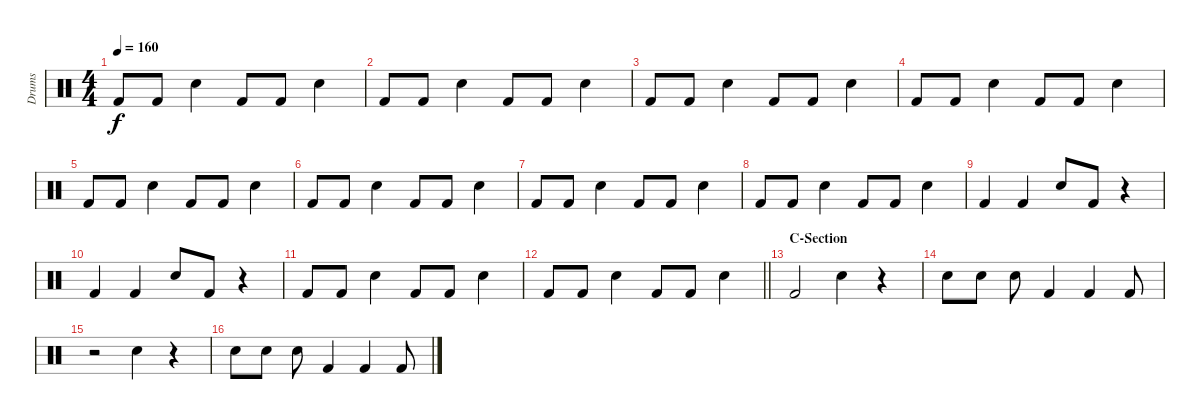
\track ("Drums" "Drums") {instrument percussion}
\staff {score}
\articulation defaults
\ts (4 4)
\tempo 160
\clef neutral
\ks c "Kick (hit) 2".8{dy f} "Kick (hit) 2".8 "Electric Snare (hit)".4 "Kick (hit) 2".8 "Kick (hit) 2".8 "Electric Snare (hit)".4
|
"Kick (hit) 2".8 "Kick (hit) 2".8 "Electric Snare (hit)".4 "Kick (hit) 2".8 "Kick (hit) 2".8 "Electric Snare (hit)".4 |
"Kick (hit) 2".8 "Kick (hit) 2".8 "Electric Snare (hit)".4 "Kick (hit) 2".8 "Kick (hit) 2".8 "Electric Snare (hit)".4 |
"Kick (hit) 2".8 "Kick (hit) 2".8 "Electric Snare (hit)".4 "Kick (hit) 2".8 "Kick (hit) 2".8 "Electric Snare (hit)".4 |
"Kick (hit) 2".8 "Kick (hit) 2".8 "Electric Snare (hit)".4 "Kick (hit) 2".8 "Kick (hit) 2".8 "Electric Snare (hit)".4 |
"Kick (hit) 2".8 "Kick (hit) 2".8 "Electric Snare (hit)".4 "Kick (hit) 2".8 "Kick (hit) 2".8 "Electric Snare (hit)".4 |
"Kick (hit) 2".8 "Kick (hit) 2".8 "Electric Snare (hit)".4 "Kick (hit) 2".8 "Kick (hit) 2".8 "Electric Snare (hit)".4 |
"Kick (hit) 2".8 "Kick (hit) 2".8 "Electric Snare (hit)".4 "Kick (hit) 2".8 "Kick (hit) 2".8 "Electric Snare (hit)".4 |
"Kick (hit) 2".4 "Kick (hit) 2".4 "Electric Snare (hit)".8 "Kick (hit) 2".8 r.4 |
"Kick (hit) 2".4 "Kick (hit) 2".4 "Electric Snare (hit)".8 "Kick (hit) 2".8 r.4 |
"Kick (hit) 2".8 "Kick (hit) 2".8 "Electric Snare (hit)".4 "Kick (hit) 2".8 "Kick (hit) 2".8 "Electric Snare (hit)".4 |
\barLineRight lightlight "Kick (hit) 2".8 "Kick (hit) 2".8 "Electric Snare (hit)".4 "Kick (hit) 2".8 "Kick (hit) 2".8 "Electric Snare (hit)".4
|
\section ("" "C-Section")
"Kick (hit) 2".2 "Electric Snare (hit)".4 r.4 |
"Electric Snare (hit)".8 "Electric Snare (hit)".8 "Electric Snare (hit)".8 "Kick (hit) 2".4 "Kick (hit) 2".4 "Kick (hit) 2".8 |
r.2 "Electric Snare (hit)".4 r.4 |
"Electric Snare (hit)".8 "Electric Snare (hit)".8 "Electric Snare (hit)".8 "Kick (hit) 2".4 "Kick (hit) 2".4 "Kick (hit) 2".8
